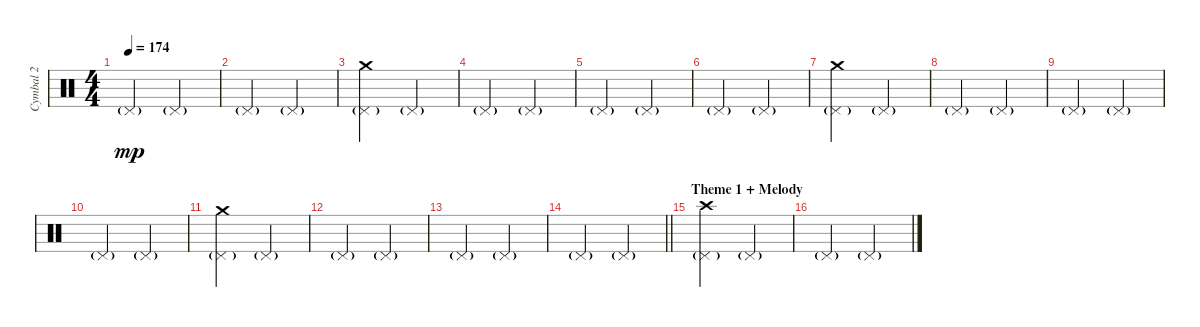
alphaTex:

\track ("Cymbal 2" "Cymbal 2") {instrument percussion}
\staff {score}
\articulation defaults
\ts (4 4)
\tempo 174
\clef neutral
\ks c "Pedal Hi-Hat (hit)"{g}.2{dy mp} "Pedal Hi-Hat (hit)"{g}.2
|
"Pedal Hi-Hat (hit)"{g}.2 "Pedal Hi-Hat (hit)"{g}.2 |
("Pedal Hi-Hat (hit)"{g} "Crash medium (hit)").2 "Pedal Hi-Hat (hit)"{g}.2 |
"Pedal Hi-Hat (hit)"{g}.2 "Pedal Hi-Hat (hit)"{g}.2 |
"Pedal Hi-Hat (hit)"{g}.2 "Pedal Hi-Hat (hit)"{g}.2 |
"Pedal Hi-Hat (hit)"{g}.2 "Pedal Hi-Hat (hit)"{g}.2 |
("Pedal Hi-Hat (hit)"{g} "Crash medium (hit)").2 "Pedal Hi-Hat (hit)"{g}.2 |
"Pedal Hi-Hat (hit)"{g}.2 "Pedal Hi-Hat (hit)"{g}.2 |
"Pedal Hi-Hat (hit)"{g}.2 "Pedal Hi-Hat (hit)"{g}.2 |
"Pedal Hi-Hat (hit)"{g}.2 "Pedal Hi-Hat (hit)"{g}.2 |
("Pedal Hi-Hat (hit)"{g} "Crash medium (hit)").2 "Pedal Hi-Hat (hit)"{g}.2 |
"Pedal Hi-Hat (hit)"{g}.2 "Pedal Hi-Hat (hit)"{g}.2 |
"Pedal Hi-Hat (hit)"{g}.2 "Pedal Hi-Hat (hit)"{g}.2 |
\barLineRight lightlight "Pedal Hi-Hat (hit)"{g}.2 "Pedal Hi-Hat (hit)"{g}.2
|
\section ("" "Theme 1 + Melody")
("Pedal Hi-Hat (hit)"{g} "Crash high (hit)").2 "Pedal Hi-Hat (hit)"{g}.2 |
"Pedal Hi-Hat (hit)"{g}.2 "Pedal Hi-Hat (hit)"{g}.2
